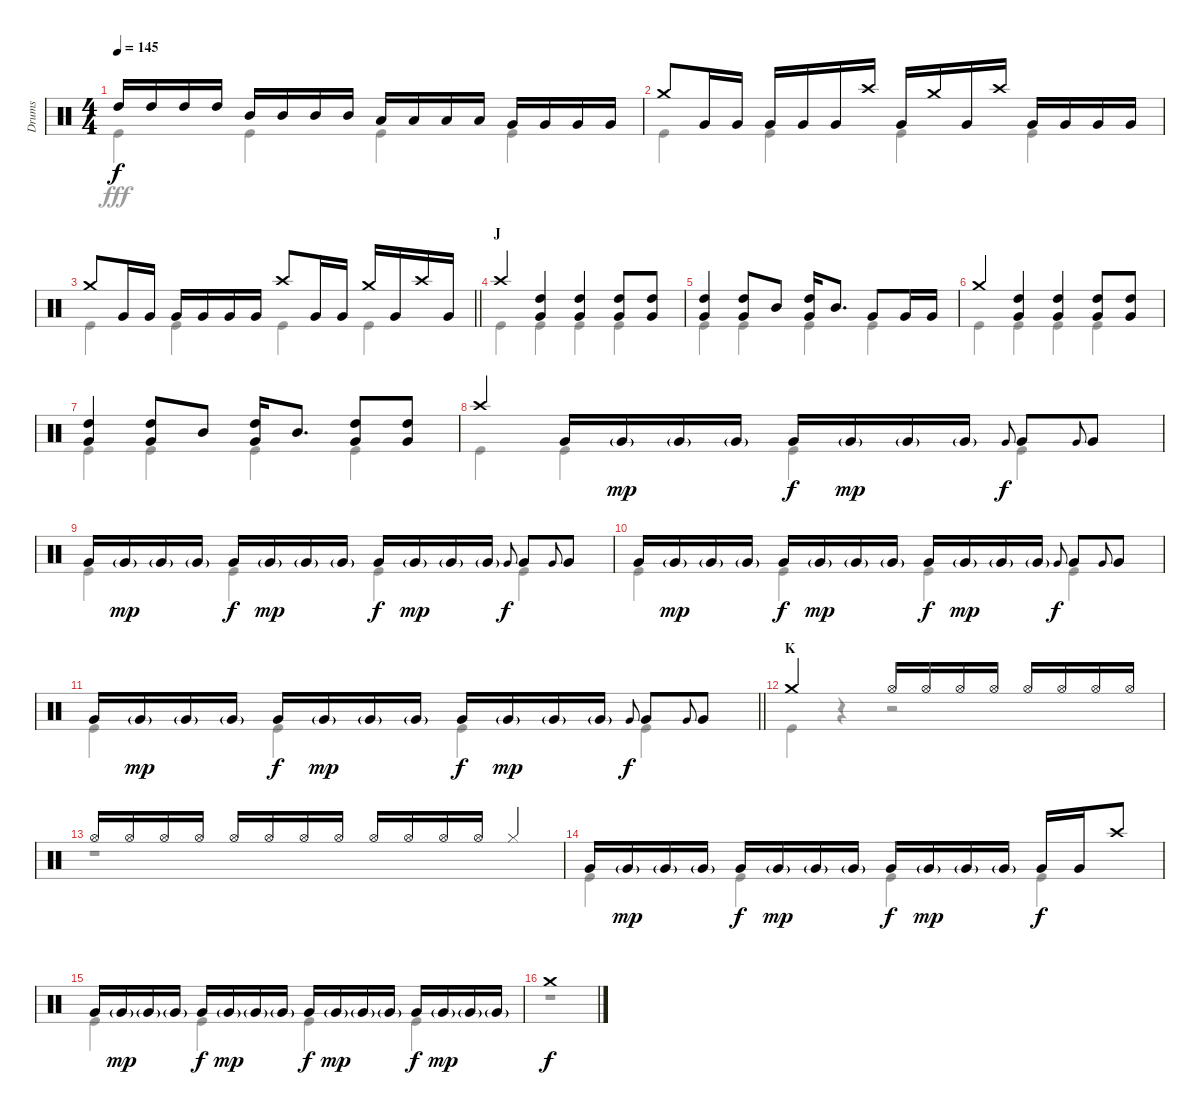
\track ("Drums" "Drums") {instrument percussion}
\staff {score}
\articulation defaults
\voice
\ts (4 4)
\tempo 145
\clef neutral
\ks c "High Tom (hit)".16{dy f} "High Tom (hit)".16 "High Tom (hit)".16 "High Tom (hit)".16 "Mid Tom (hit)".16 "Mid Tom (hit)".16 "Mid Tom (hit)".16 "Mid Tom (hit)".16 "Low Tom (hit)".16 "Low Tom (hit)".16 "Low Tom (hit)".16 "Low Tom (hit)".16 "Very Low Tom (hit)".16 "Very Low Tom (hit)".16 "Very Low Tom (hit)".16 "Very Low Tom (hit)".16
|
"Crash medium (hit)".8 "Very Low Tom (hit)".16 "Very Low Tom (hit)".16 "Very Low Tom (hit)".16 "Very Low Tom (hit)".16 "Very Low Tom (hit)".16 "Crash high (hit)".16 "Very Low Tom (hit)".16 "Crash medium (hit)".16 "Very Low Tom (hit)".16 "Crash high (hit)".16 "Very Low Tom (hit)".16 "Very Low Tom (hit)".16 "Very Low Tom (hit)".16 "Very Low Tom (hit)".16 |
\barLineRight lightlight "Crash medium (hit)".8 "Very Low Tom (hit)".16 "Very Low Tom (hit)".16 "Very Low Tom (hit)".16 "Very Low Tom (hit)".16 "Very Low Tom (hit)".16 "Very Low Tom (hit)".16 "Crash high (hit)".8 "Very Low Tom (hit)".16 "Very Low Tom (hit)".16 "Crash medium (hit)".16 "Very Low Tom (hit)".16 "Crash high (hit)".16 "Very Low Tom (hit)".16
|
\section ("" "J")
"Crash high (hit)".4 ("High Tom (hit)" "Very Low Tom (hit)").4 ("High Tom (hit)" "Very Low Tom (hit)").4 ("High Tom (hit)" "Very Low Tom (hit)").8 ("High Tom (hit)" "Very Low Tom (hit)").8 |
("High Tom (hit)" "Very Low Tom (hit)").4 ("High Tom (hit)" "Very Low Tom (hit)").8 "Mid Tom (hit)".8 ("High Tom (hit)" "Very Low Tom (hit)").16 "Mid Tom (hit)".8{d} "Very Low Tom (hit)".8 "Very Low Tom (hit)".16 "Very Low Tom (hit)".16 |
"Crash medium (hit)".4 ("High Tom (hit)" "Very Low Tom (hit)").4 ("High Tom (hit)" "Very Low Tom (hit)").4 ("High Tom (hit)" "Very Low Tom (hit)").8 ("High Tom (hit)" "Very Low Tom (hit)").8 |
("High Tom (hit)" "Very Low Tom (hit)").4 ("High Tom (hit)" "Very Low Tom (hit)").8 "Mid Tom (hit)".8 ("High Tom (hit)" "Very Low Tom (hit)").16 "Mid Tom (hit)".8{d} ("High Tom (hit)" "Very Low Tom (hit)").8 ("High Tom (hit)" "Very Low Tom (hit)").8 |
"Crash high (hit)".4 "Very Low Tom (hit)".16 "Very Low Tom (hit)"{g}.16{dy mp} "Very Low Tom (hit)"{g}.16 "Very Low Tom (hit)"{g}.16 "Very Low Tom (hit)".16{dy f} "Very Low Tom (hit)"{g}.16{dy mp} "Very Low Tom (hit)"{g}.16 "Very Low Tom (hit)"{g}.16 "Very Low Tom (hit)".8{gr onbeat dy f} "Very Low Tom (hit)".8 "Very Low Tom (hit)".8{gr onbeat} "Very Low Tom (hit)".8 |
"Very Low Tom (hit)".16 "Very Low Tom (hit)"{g}.16{dy mp} "Very Low Tom (hit)"{g}.16 "Very Low Tom (hit)"{g}.16 "Very Low Tom (hit)".16{dy f} "Very Low Tom (hit)"{g}.16{dy mp} "Very Low Tom (hit)"{g}.16 "Very Low Tom (hit)"{g}.16 "Very Low Tom (hit)".16{dy f} "Very Low Tom (hit)"{g}.16{dy mp} "Very Low Tom (hit)"{g}.16 "Very Low Tom (hit)"{g}.16 "Very Low Tom (hit)".8{gr onbeat dy f} "Very Low Tom (hit)".8 "Very Low Tom (hit)".8{gr onbeat} "Very Low Tom (hit)".8 |
"Very Low Tom (hit)".16 "Very Low Tom (hit)"{g}.16{dy mp} "Very Low Tom (hit)"{g}.16 "Very Low Tom (hit)"{g}.16 "Very Low Tom (hit)".16{dy f} "Very Low Tom (hit)"{g}.16{dy mp} "Very Low Tom (hit)"{g}.16 "Very Low Tom (hit)"{g}.16 "Very Low Tom (hit)".16{dy f} "Very Low Tom (hit)"{g}.16{dy mp} "Very Low Tom (hit)"{g}.16 "Very Low Tom (hit)"{g}.16 "Very Low Tom (hit)".8{gr onbeat dy f} "Very Low Tom (hit)".8 "Very Low Tom (hit)".8{gr onbeat} "Very Low Tom (hit)".8 |
\barLineRight lightlight "Very Low Tom (hit)".16 "Very Low Tom (hit)"{g}.16{dy mp} "Very Low Tom (hit)"{g}.16 "Very Low Tom (hit)"{g}.16 "Very Low Tom (hit)".16{dy f} "Very Low Tom (hit)"{g}.16{dy mp} "Very Low Tom (hit)"{g}.16 "Very Low Tom (hit)"{g}.16 "Very Low Tom (hit)".16{dy f} "Very Low Tom (hit)"{g}.16{dy mp} "Very Low Tom (hit)"{g}.16 "Very Low Tom (hit)"{g}.16 "Very Low Tom (hit)".8{gr onbeat dy f} "Very Low Tom (hit)".8 "Very Low Tom (hit)".8{gr onbeat} "Very Low Tom (hit)".8
|
\section ("" "K")
"Crash medium (hit)".2 "Hi-Hat (open)".16 "Hi-Hat (open)".16 "Hi-Hat (open)".16 "Hi-Hat (open)".16 "Hi-Hat (open)".16 "Hi-Hat (open)".16 "Hi-Hat (open)".16 "Hi-Hat (open)".16 |
"Hi-Hat (open)".16 "Hi-Hat (open)".16 "Hi-Hat (open)".16 "Hi-Hat (open)".16 "Hi-Hat (open)".16 "Hi-Hat (open)".16 "Hi-Hat (open)".16 "Hi-Hat (open)".16 "Hi-Hat (open)".16 "Hi-Hat (open)".16 "Hi-Hat (open)".16 "Hi-Hat (open)".16 "Hi-Hat (closed)".4 |
"Very Low Tom (hit)".16 "Very Low Tom (hit)"{g}.16{dy mp} "Very Low Tom (hit)"{g}.16 "Very Low Tom (hit)"{g}.16 "Very Low Tom (hit)".16{dy f} "Very Low Tom (hit)"{g}.16{dy mp} "Very Low Tom (hit)"{g}.16 "Very Low Tom (hit)"{g}.16 "Very Low Tom (hit)".16{dy f} "Very Low Tom (hit)"{g}.16{dy mp} "Very Low Tom (hit)"{g}.16 "Very Low Tom (hit)"{g}.16 "Very Low Tom (hit)".16{dy f} "Very Low Tom (hit)".16 "Crash high (hit)".8 |
"Very Low Tom (hit)".16 "Very Low Tom (hit)"{g}.16{dy mp} "Very Low Tom (hit)"{g}.16 "Very Low Tom (hit)"{g}.16 "Very Low Tom (hit)".16{dy f} "Very Low Tom (hit)"{g}.16{dy mp} "Very Low Tom (hit)"{g}.16 "Very Low Tom (hit)"{g}.16 "Very Low Tom (hit)".16{dy f} "Very Low Tom (hit)"{g}.16{dy mp} "Very Low Tom (hit)"{g}.16 "Very Low Tom (hit)"{g}.16 "Very Low Tom (hit)".16{dy f} "Very Low Tom (hit)"{g}.16{dy mp} "Very Low Tom (hit)"{g}.16 "Very Low Tom (hit)"{g}.16 |
"Crash medium (hit)".1{dy f}
\voice
\clef neutral
\ottava regular
\simile none
\ks c "Kick (hit)".4{dy fff} "Kick (hit)".4 "Kick (hit)".4 "Kick (hit)".4
|
"Kick (hit)".4 "Kick (hit)".4 "Kick (hit)".4 "Kick (hit)".4 |
\barLineRight lightlight "Kick (hit)".4 "Kick (hit)".4 "Kick (hit)".4 "Kick (hit)".4
|
"Kick (hit)".4 "Kick (hit)".4 "Kick (hit)".4 "Kick (hit)".4 |
"Kick (hit)".4 "Kick (hit)".4 "Kick (hit)".4 "Kick (hit)".4 |
"Kick (hit)".4 "Kick (hit)".4 "Kick (hit)".4 "Kick (hit)".4 |
"Kick (hit)".4 "Kick (hit)".4 "Kick (hit)".4 "Kick (hit)".4 |
"Kick (hit)".4 "Kick (hit)".4 "Kick (hit)".4 "Kick (hit)".4 |
"Kick (hit)".4 "Kick (hit)".4 "Kick (hit)".4 "Kick (hit)".4 |
"Kick (hit)".4 "Kick (hit)".4 "Kick (hit)".4 "Kick (hit)".4 |
\barLineRight lightlight "Kick (hit)".4 "Kick (hit)".4 "Kick (hit)".4 "Kick (hit)".4
|
"Kick (hit)".4 r.4 r.2 |
r.1 |
"Kick (hit)".4 "Kick (hit)".4 "Kick (hit)".4 "Kick (hit)".4 |
"Kick (hit)".4 "Kick (hit)".4 "Kick (hit)".4 "Kick (hit)".4 |
r.1
